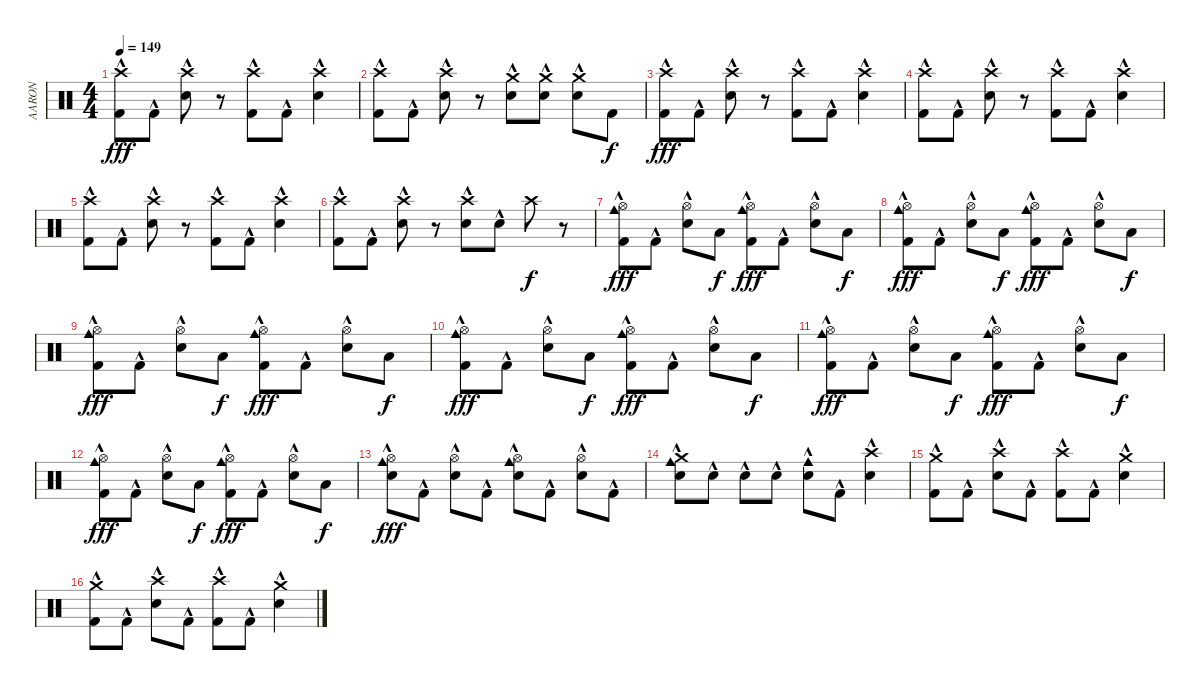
\track ("AARON" "AARON") {instrument percussion}
\staff {score}
\articulation defaults
\ts (4 4)
\tempo 149
\clef neutral
\ks c
("Crash high (hit)" "Kick (hit) 2"{hac}).8{dy fff} "Kick (hit) 2"{hac}.8 ("Crash high (hit)" "Snare (hit) 2"{hac}).8 r.8 ("Crash high (hit)" "Kick (hit) 2"{hac}).8 "Kick (hit) 2"{hac}.8 ("Crash high (hit)" "Snare (hit) 2"{hac}).4 |
("Crash high (hit)" "Kick (hit) 2"{hac}).8 "Kick (hit) 2"{hac}.8 ("Crash high (hit)" "Snare (hit) 2"{hac}).8 r.8 ("Crash medium (hit)" "Snare (hit) 2"{hac}).8 ("Crash medium (hit)" "Snare (hit) 2"{hac}).8 ("Crash medium (hit)" "Snare (hit) 2"{hac}).8 "Kick (hit) 2".8{dy f} |
("Crash high (hit)" "Kick (hit) 2"{hac}).8{dy fff} "Kick (hit) 2"{hac}.8 ("Crash high (hit)" "Snare (hit) 2"{hac}).8 r.8 ("Crash high (hit)" "Kick (hit) 2"{hac}).8 "Kick (hit) 2"{hac}.8 ("Crash high (hit)" "Snare (hit) 2"{hac}).4 |
("Crash high (hit)" "Kick (hit) 2"{hac}).8 "Kick (hit) 2"{hac}.8 ("Crash high (hit)" "Snare (hit) 2"{hac}).8 r.8 ("Crash high (hit)" "Kick (hit) 2"{hac}).8 "Kick (hit) 2"{hac}.8 ("Crash high (hit)" "Snare (hit) 2"{hac}).4 |
("Crash high (hit)" "Kick (hit) 2"{hac}).8 "Kick (hit) 2"{hac}.8 ("Crash high (hit)" "Snare (hit) 2"{hac}).8 r.8 ("Crash high (hit)" "Kick (hit) 2"{hac}).8 "Kick (hit) 2"{hac}.8 ("Crash high (hit)" "Snare (hit) 2"{hac}).4 |
("Crash high (hit)" "Kick (hit) 2"{hac}).8 "Kick (hit) 2"{hac}.8 ("Crash high (hit)" "Snare (hit) 2"{hac}).8 r.8 ("Crash high (hit)" "Snare (hit) 2"{hac}).8 "Snare (hit) 2"{hac}.8 "Crash high (hit)".8{dy f} r.8 |
("Hi-Hat (open)" "Cowbell medium (hit)" "Kick (hit) 2"{hac}).8{dy fff} "Kick (hit) 2"{hac}.8 ("Hi-Hat (open)" "Snare (hit) 2"{hac}).8 "Low Tom (hit)".8{dy f} ("Hi-Hat (open)" "Cowbell medium (hit)" "Kick (hit) 2"{hac}).8{dy fff} "Kick (hit) 2"{hac}.8 ("Hi-Hat (open)" "Snare (hit) 2"{hac}).8 "Low Tom (hit)".8{dy f} |
("Hi-Hat (open)" "Cowbell medium (hit)" "Kick (hit) 2"{hac}).8{dy fff} "Kick (hit) 2"{hac}.8 ("Hi-Hat (open)" "Snare (hit) 2"{hac}).8 "Low Tom (hit)".8{dy f} ("Hi-Hat (open)" "Cowbell medium (hit)" "Kick (hit) 2"{hac}).8{dy fff} "Kick (hit) 2"{hac}.8 ("Hi-Hat (open)" "Snare (hit) 2"{hac}).8 "Low Tom (hit)".8{dy f} |
("Hi-Hat (open)" "Cowbell medium (hit)" "Kick (hit) 2"{hac}).8{dy fff} "Kick (hit) 2"{hac}.8 ("Hi-Hat (open)" "Snare (hit) 2"{hac}).8 "Low Tom (hit)".8{dy f} ("Hi-Hat (open)" "Cowbell medium (hit)" "Kick (hit) 2"{hac}).8{dy fff} "Kick (hit) 2"{hac}.8 ("Hi-Hat (open)" "Snare (hit) 2"{hac}).8 "Low Tom (hit)".8{dy f} |
("Hi-Hat (open)" "Cowbell medium (hit)" "Kick (hit) 2"{hac}).8{dy fff} "Kick (hit) 2"{hac}.8 ("Hi-Hat (open)" "Snare (hit) 2"{hac}).8 "Low Tom (hit)".8{dy f} ("Hi-Hat (open)" "Cowbell medium (hit)" "Kick (hit) 2"{hac}).8{dy fff} "Kick (hit) 2"{hac}.8 ("Hi-Hat (open)" "Snare (hit) 2"{hac}).8 "Low Tom (hit)".8{dy f} |
("Hi-Hat (open)" "Cowbell medium (hit)" "Kick (hit) 2"{hac}).8{dy fff} "Kick (hit) 2"{hac}.8 ("Hi-Hat (open)" "Snare (hit) 2"{hac}).8 "Low Tom (hit)".8{dy f} ("Hi-Hat (open)" "Cowbell medium (hit)" "Kick (hit) 2"{hac}).8{dy fff} "Kick (hit) 2"{hac}.8 ("Hi-Hat (open)" "Snare (hit) 2"{hac}).8 "Low Tom (hit)".8{dy f} |
("Hi-Hat (open)" "Cowbell medium (hit)" "Kick (hit) 2"{hac}).8{dy fff} "Kick (hit) 2"{hac}.8 ("Hi-Hat (open)" "Snare (hit) 2"{hac}).8 "Low Tom (hit)".8{dy f} ("Hi-Hat (open)" "Cowbell medium (hit)" "Kick (hit) 2"{hac}).8{dy fff} "Kick (hit) 2"{hac}.8 ("Hi-Hat (open)" "Snare (hit) 2"{hac}).8 "Low Tom (hit)".8{dy f} |
("Hi-Hat (open)" "Cowbell medium (hit)" "Snare (hit) 2"{hac}).8{dy fff} "Kick (hit) 2"{hac}.8 ("Hi-Hat (open)" "Snare (hit) 2"{hac}).8 "Kick (hit) 2"{hac}.8 ("Hi-Hat (open)" "Cowbell medium (hit)" "Snare (hit) 2"{hac}).8 "Kick (hit) 2"{hac}.8 ("Hi-Hat (open)" "Snare (hit) 2"{hac}).8 "Kick (hit) 2"{hac}.8 |
("Crash medium (hit)" "Cowbell medium (hit)" "Snare (hit) 2"{hac}).8 "Snare (hit) 2"{hac}.8 "Snare (hit) 2"{hac}.8 "Snare (hit) 2"{hac}.8 ("Cowbell medium (hit)" "Snare (hit) 2"{hac}).8 "Kick (hit) 2"{hac}.8 ("Crash high (hit)" "Snare (hit) 2"{hac}).4 |
("Crash medium (hit)" "Kick (hit) 2"{hac}).8 "Kick (hit) 2"{hac}.8 ("Crash high (hit)" "Snare (hit) 2"{hac}).8 "Kick (hit) 2"{hac}.8 ("Crash high (hit)" "Kick (hit) 2"{hac}).8 "Kick (hit) 2"{hac}.8 ("Crash medium (hit)" "Snare (hit) 2"{hac}).4 |
("Crash medium (hit)" "Kick (hit) 2"{hac}).8 "Kick (hit) 2"{hac}.8 ("Crash high (hit)" "Snare (hit) 2"{hac}).8 "Kick (hit) 2"{hac}.8 ("Crash high (hit)" "Kick (hit) 2"{hac}).8 "Kick (hit) 2"{hac}.8 ("Crash medium (hit)" "Snare (hit) 2"{hac}).4
